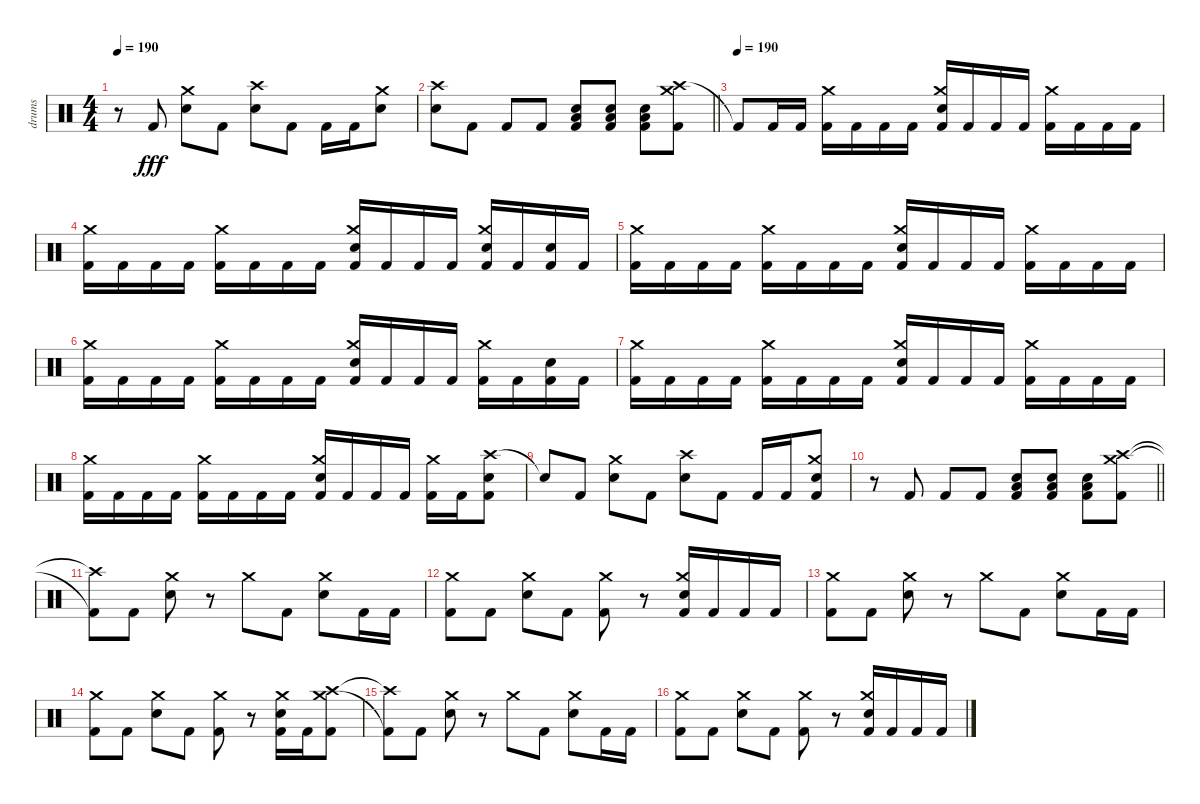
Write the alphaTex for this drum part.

\track ("drums" "drums") {instrument percussion}
\staff {score}
\articulation defaults
\ts (4 4)
\tempo 190
\clef neutral
\ks c
r.8{dy fff} "Kick (hit) 2".8 ("Crash medium (hit)" "Electric Snare (hit)").8 "Kick (hit) 2".8 ("Crash high (hit)" "Electric Snare (hit)").8 "Kick (hit) 2".8 "Kick (hit) 2".16 "Kick (hit) 2".16 ("Crash medium (hit)" "Electric Snare (hit)").8 |
\barLineRight lightlight
("Crash high (hit)" "Electric Snare (hit)").8 "Kick (hit) 2".8 "Kick (hit) 2".8 "Kick (hit) 2".8 ("Low Floor Tom (hit)" "Electric Snare (hit)" "Kick (hit) 2").8 ("Low Floor Tom (hit)" "Electric Snare (hit)" "Kick (hit) 2").8 ("Low Floor Tom (hit)" "Electric Snare (hit)" "Kick (hit) 2").8 ("Crash high (hit)" "Crash medium (hit)" "Kick (hit) 2").8 |
\section ("" "")
\tempo (190)
"Kick (hit) 2"{t}.8 "Kick (hit) 2".16 "Kick (hit) 2".16 ("Crash medium (hit)" "Kick (hit) 2").16 "Kick (hit) 2".16 "Kick (hit) 2".16 "Kick (hit) 2".16 ("Crash medium (hit)" "Electric Snare (hit)" "Kick (hit) 2").16 "Kick (hit) 2".16 "Kick (hit) 2".16 "Kick (hit) 2".16 ("Crash medium (hit)" "Kick (hit) 2").16 "Kick (hit) 2".16 "Kick (hit) 2".16 "Kick (hit) 2".16 |
("Crash medium (hit)" "Kick (hit) 2").16 "Kick (hit) 2".16 "Kick (hit) 2".16 "Kick (hit) 2".16 ("Crash medium (hit)" "Kick (hit) 2").16 "Kick (hit) 2".16 "Kick (hit) 2".16 "Kick (hit) 2".16 ("Crash medium (hit)" "Electric Snare (hit)" "Kick (hit) 2").16 "Kick (hit) 2".16 "Kick (hit) 2".16 "Kick (hit) 2".16 ("Crash medium (hit)" "Electric Snare (hit)" "Kick (hit) 2").16 "Kick (hit) 2".16 ("Electric Snare (hit)" "Kick (hit) 2").16 "Kick (hit) 2".16 |
("Crash medium (hit)" "Kick (hit) 2").16 "Kick (hit) 2".16 "Kick (hit) 2".16 "Kick (hit) 2".16 ("Crash medium (hit)" "Kick (hit) 2").16 "Kick (hit) 2".16 "Kick (hit) 2".16 "Kick (hit) 2".16 ("Crash medium (hit)" "Electric Snare (hit)" "Kick (hit) 2").16 "Kick (hit) 2".16 "Kick (hit) 2".16 "Kick (hit) 2".16 ("Crash medium (hit)" "Kick (hit) 2").16 "Kick (hit) 2".16 "Kick (hit) 2".16 "Kick (hit) 2".16 |
("Crash medium (hit)" "Kick (hit) 2").16 "Kick (hit) 2".16 "Kick (hit) 2".16 "Kick (hit) 2".16 ("Crash medium (hit)" "Kick (hit) 2").16 "Kick (hit) 2".16 "Kick (hit) 2".16 "Kick (hit) 2".16 ("Crash medium (hit)" "Electric Snare (hit)" "Kick (hit) 2").16 "Kick (hit) 2".16 "Kick (hit) 2".16 "Kick (hit) 2".16 ("Crash medium (hit)" "Kick (hit) 2").16 "Kick (hit) 2".16 ("Electric Snare (hit)" "Kick (hit) 2").16 "Kick (hit) 2".16 |
("Crash medium (hit)" "Kick (hit) 2").16 "Kick (hit) 2".16 "Kick (hit) 2".16 "Kick (hit) 2".16 ("Crash medium (hit)" "Kick (hit) 2").16 "Kick (hit) 2".16 "Kick (hit) 2".16 "Kick (hit) 2".16 ("Crash medium (hit)" "Electric Snare (hit)" "Kick (hit) 2").16 "Kick (hit) 2".16 "Kick (hit) 2".16 "Kick (hit) 2".16 ("Crash medium (hit)" "Kick (hit) 2").16 "Kick (hit) 2".16 "Kick (hit) 2".16 "Kick (hit) 2".16 |
("Crash medium (hit)" "Kick (hit) 2").16 "Kick (hit) 2".16 "Kick (hit) 2".16 "Kick (hit) 2".16 ("Crash medium (hit)" "Kick (hit) 2").16 "Kick (hit) 2".16 "Kick (hit) 2".16 "Kick (hit) 2".16 ("Crash medium (hit)" "Electric Snare (hit)" "Kick (hit) 2").16 "Kick (hit) 2".16 "Kick (hit) 2".16 "Kick (hit) 2".16 ("Crash medium (hit)" "Kick (hit) 2").16 "Kick (hit) 2".16 ("Crash high (hit)" "Electric Snare (hit)" "Kick (hit) 2").8 |
"Snare (hit)"{t}.8 "Kick (hit) 2".8 ("Crash medium (hit)" "Electric Snare (hit)").8 "Kick (hit) 2".8 ("Crash high (hit)" "Electric Snare (hit)").8 "Kick (hit) 2".8 "Kick (hit) 2".16 "Kick (hit) 2".16 ("Crash medium (hit)" "Electric Snare (hit)" "Kick (hit) 2").8 |
\barLineRight lightlight
r.8 "Kick (hit) 2".8 "Kick (hit) 2".8 "Kick (hit) 2".8 ("Low Floor Tom (hit)" "Electric Snare (hit)" "Kick (hit) 2").8 ("Low Floor Tom (hit)" "Electric Snare (hit)" "Kick (hit) 2").8 ("Low Floor Tom (hit)" "Electric Snare (hit)" "Kick (hit) 2").8 ("Crash high (hit)" "Crash medium (hit)" "Kick (hit) 2").8 |
\section ("" "")
("Crash high (hit)"{t} "Kick (hit) 2"{t}).8 "Kick (hit) 2".8 ("Crash medium (hit)" "Electric Snare (hit)").8 r.8 "Crash medium (hit)".8 "Kick (hit) 2".8 ("Crash medium (hit)" "Electric Snare (hit)").8 "Kick (hit) 2".16 "Kick (hit) 2".16 |
("Crash medium (hit)" "Kick (hit) 2").8 "Kick (hit) 2".8 ("Crash medium (hit)" "Electric Snare (hit)").8 "Kick (hit) 2".8 ("Crash medium (hit)" "Kick (hit) 2").8 r.8 ("Crash medium (hit)" "Electric Snare (hit)" "Kick (hit) 2").16 "Kick (hit) 2".16 "Kick (hit) 2".16 "Kick (hit) 2".16 |
("Crash medium (hit)" "Kick (hit) 2").8 "Kick (hit) 2".8 ("Crash medium (hit)" "Electric Snare (hit)").8 r.8 "Crash medium (hit)".8 "Kick (hit) 2".8 ("Crash medium (hit)" "Electric Snare (hit)").8 "Kick (hit) 2".16 "Kick (hit) 2".16 |
("Crash medium (hit)" "Kick (hit) 2").8 "Kick (hit) 2".8 ("Crash medium (hit)" "Electric Snare (hit)").8 "Kick (hit) 2".8 ("Crash medium (hit)" "Kick (hit) 2").8 r.8 ("Crash medium (hit)" "Electric Snare (hit)" "Kick (hit) 2").16 "Kick (hit) 2".16 ("Crash high (hit)" "Crash medium (hit)" "Kick (hit) 2").8 |
("Crash high (hit)"{t} "Kick (hit) 2"{t}).8 "Kick (hit) 2".8 ("Crash medium (hit)" "Electric Snare (hit)").8 r.8 "Crash medium (hit)".8 "Kick (hit) 2".8 ("Crash medium (hit)" "Electric Snare (hit)").8 "Kick (hit) 2".16 "Kick (hit) 2".16 |
("Crash medium (hit)" "Kick (hit) 2").8 "Kick (hit) 2".8 ("Crash medium (hit)" "Electric Snare (hit)").8 "Kick (hit) 2".8 ("Crash medium (hit)" "Kick (hit) 2").8 r.8 ("Crash medium (hit)" "Electric Snare (hit)" "Kick (hit) 2").16 "Kick (hit) 2".16 "Kick (hit) 2".16 "Kick (hit) 2".16
